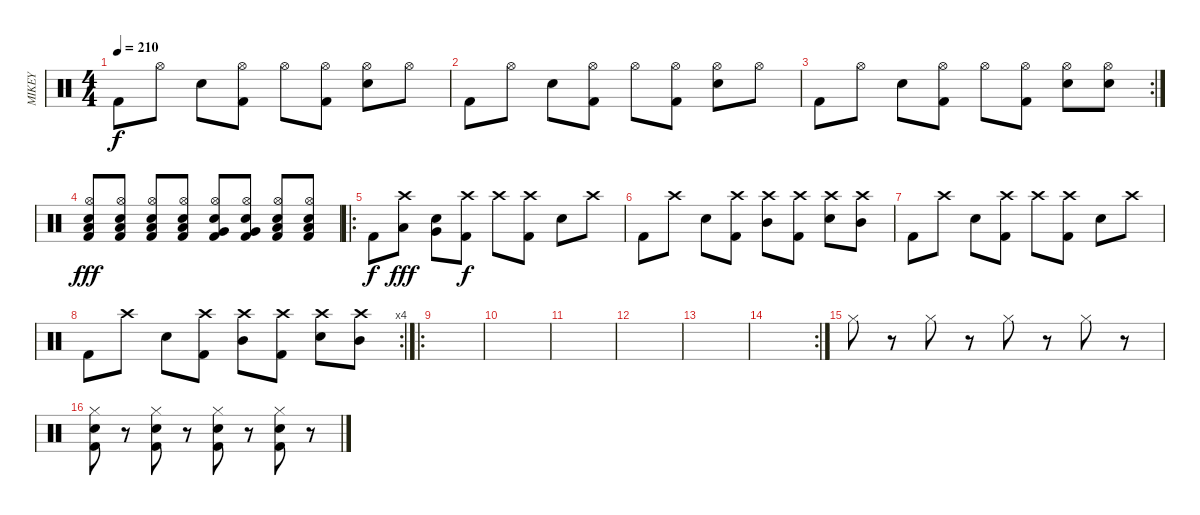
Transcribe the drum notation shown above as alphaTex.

\track ("MIKEY" "MIKEY") {instrument percussion}
\staff {score}
\articulation defaults
\ts (4 4)
\tempo 210
\clef neutral
\ks c "Kick (hit) 2".8{dy f} "Hi-Hat (open)".8 "Electric Snare (hit)".8
("Kick (hit) 2" "Hi-Hat (open)").8 "Hi-Hat (open)".8 ("Kick (hit) 2" "Hi-Hat (open)").8 ("Electric Snare (hit)" "Hi-Hat (open)").8 "Hi-Hat (open)".8 |
"Kick (hit) 2".8 "Hi-Hat (open)".8 "Electric Snare (hit)".8 ("Kick (hit) 2" "Hi-Hat (open)").8 "Hi-Hat (open)".8 ("Kick (hit) 2" "Hi-Hat (open)").8 ("Electric Snare (hit)" "Hi-Hat (open)").8 "Hi-Hat (open)".8 |
\rc 2 "Kick (hit) 2".8 "Hi-Hat (open)".8 "Electric Snare (hit)".8
("Kick (hit) 2" "Hi-Hat (open)").8 "Hi-Hat (open)".8 ("Kick (hit) 2" "Hi-Hat (open)").8 ("Electric Snare (hit)" "Hi-Hat (open)").8 ("Electric Snare (hit)" "Hi-Hat (open)").8 |
("Kick (hit) 2" "Hi-Hat (open)" "Low Floor Tom (hit)" "Electric Snare (hit)").8{dy fff} ("Kick (hit) 2" "Hi-Hat (open)" "Low Floor Tom (hit)" "Electric Snare (hit)").8 ("Kick (hit) 2" "Hi-Hat (open)" "Low Floor Tom (hit)" "Electric Snare (hit)").8 ("Kick (hit) 2" "Hi-Hat (open)" "Low Floor Tom (hit)" "Electric Snare (hit)").8 ("Kick (hit) 2" "Hi-Hat (open)" "Very Low Tom (hit)" "Electric Snare (hit)").8 ("Kick (hit) 2" "Hi-Hat (open)" "Very Low Tom (hit)" "Electric Snare (hit)").8 ("Kick (hit) 2" "Hi-Hat (open)" "Low Tom (hit)" "Electric Snare (hit)").8 ("Kick (hit) 2" "Hi-Hat (open)" "Low Tom (hit)" "Electric Snare (hit)").8 |
\ro "Kick (hit) 2".8{dy f}
("Crash high (hit)" "Low Tom (hit)").8{dy fff} ("Electric Snare (hit)" "Very Low Tom (hit)").8 ("Kick (hit) 2" "Crash high (hit)").8{dy f} "Crash high (hit)".8 ("Kick (hit) 2" "Crash high (hit)").8 "Electric Snare (hit)".8 "Crash high (hit)".8 |
"Kick (hit) 2".8 "Crash high (hit)".8 "Electric Snare (hit)".8 ("Kick (hit) 2" "Crash high (hit)").8 ("Mid Tom (hit)" "Crash high (hit)").8 ("Kick (hit) 2" "Crash high (hit)").8 ("Electric Snare (hit)" "Crash high (hit)").8 ("Mid Tom (hit)" "Crash high (hit)").8 |
"Kick (hit) 2".8 "Crash high (hit)".8 "Electric Snare (hit)".8 ("Kick (hit) 2" "Crash high (hit)").8 "Crash high (hit)".8 ("Kick (hit) 2" "Crash high (hit)").8 "Electric Snare (hit)".8 "Crash high (hit)".8 |
\rc 4 "Kick (hit) 2".8 "Crash high (hit)".8 "Electric Snare (hit)".8
("Kick (hit) 2" "Crash high (hit)").8 ("Mid Tom (hit)" "Crash high (hit)").8 ("Kick (hit) 2" "Crash high (hit)").8 ("Electric Snare (hit)" "Crash high (hit)").8 ("Mid Tom (hit)" "Crash high (hit)").8 |
\ro
|
|
|
|
|
\rc 2
|
"Hi-Hat (closed)".8 r.8 "Hi-Hat (closed)".8 r.8 "Hi-Hat (closed)".8 r.8 "Hi-Hat (closed)".8 r.8 |
("Hi-Hat (closed)" "Kick (hit) 2" "Electric Snare (hit)").8 r.8 ("Hi-Hat (closed)" "Kick (hit) 2" "Electric Snare (hit)").8 r.8 ("Hi-Hat (closed)" "Kick (hit) 2" "Electric Snare (hit)").8 r.8 ("Hi-Hat (closed)" "Kick (hit) 2" "Electric Snare (hit)").8 r.8
